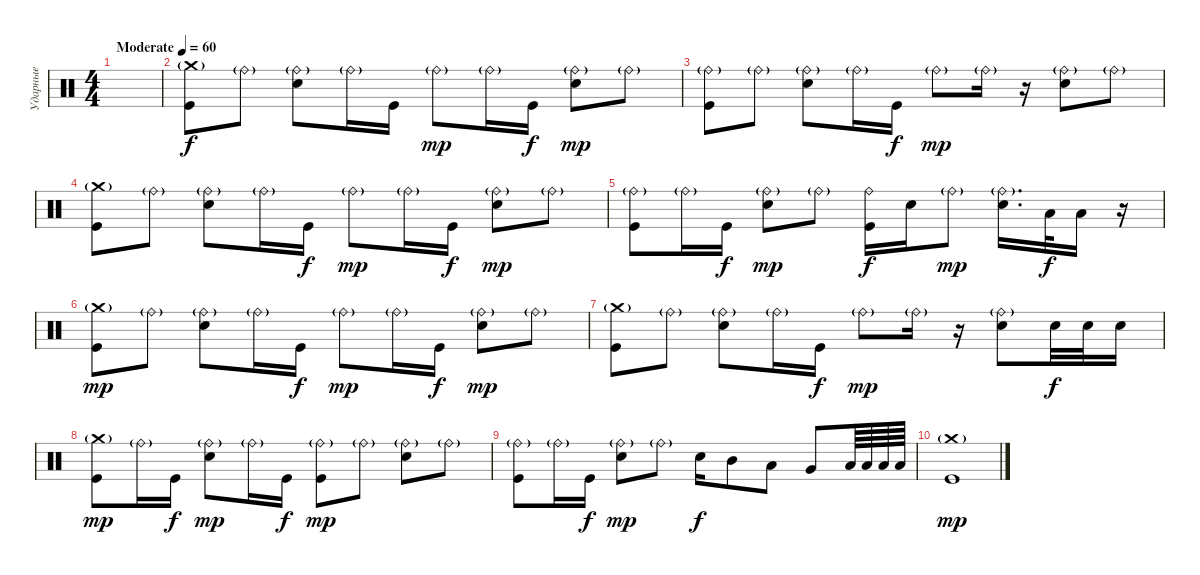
\track ("Ударные" "Ударные") {instrument percussion}
\staff {score}
\articulation defaults
\ts (4 4)
\tempo (60 "Moderate")
\clef neutral
\ks c
|
("Crash medium (hit)"{g} "Kick (hit)").8 "Ride (bell)"{g}.8 ("Snare (hit) 2" "Ride (bell)"{g}).8 "Ride (bell)"{g}.16 "Kick (hit)".16{dy f} "Ride (bell)"{g}.8{dy mp} "Ride (bell)"{g}.16 "Kick (hit)".16{dy f} ("Snare (hit) 2" "Ride (bell)"{g}).8{dy mp} "Ride (bell)"{g}.8 |
("Ride (bell)"{g} "Kick (hit)").8 "Ride (bell)"{g}.8 ("Snare (hit) 2" "Ride (bell)"{g}).8 "Ride (bell)"{g}.16 "Kick (hit)".16{dy f} "Ride (bell)"{g}.8{dy mp} "Ride (bell)"{g}.16 r.16 ("Snare (hit) 2" "Ride (bell)"{g}).8 "Ride (bell)"{g}.8 |
("Crash medium (hit)"{g} "Kick (hit)").8 "Ride (bell)"{g}.8 ("Snare (hit) 2" "Ride (bell)"{g}).8 "Ride (bell)"{g}.16 "Kick (hit)".16{dy f} "Ride (bell)"{g}.8{dy mp} "Ride (bell)"{g}.16 "Kick (hit)".16{dy f} ("Snare (hit) 2" "Ride (bell)"{g}).8{dy mp} "Ride (bell)"{g}.8 |
("Ride (bell)"{g} "Kick (hit)").8 "Ride (bell)"{g}.16 "Kick (hit)".16{dy f} ("Snare (hit) 2" "Ride (bell)"{g}).8{dy mp} "Ride (bell)"{g}.8 ("Ride (bell)" "Kick (hit)").16{dy f} "Snare (hit) 2".16 "Ride (bell)"{g}.8{dy mp} ("Snare (hit) 2" "Ride (bell)"{g}).16{d} "Low Tom (hit)".32{dy f} "Low Tom (hit)".16 r.16 |
("Crash medium (hit)"{g} "Kick (hit)").8{dy mp} "Ride (bell)"{g}.8 ("Snare (hit) 2" "Ride (bell)"{g}).8 "Ride (bell)"{g}.16 "Kick (hit)".16{dy f} "Ride (bell)"{g}.8{dy mp} "Ride (bell)"{g}.16 "Kick (hit)".16{dy f} ("Snare (hit) 2" "Ride (bell)"{g}).8{dy mp} "Ride (bell)"{g}.8 |
("Crash medium (hit)"{g} "Kick (hit)").8 "Ride (bell)"{g}.8 ("Snare (hit) 2" "Ride (bell)"{g}).8 "Ride (bell)"{g}.16 "Kick (hit)".16{dy f} "Ride (bell)"{g}.8{dy mp} "Ride (bell)"{g}.16 r.16 ("Snare (hit) 2" "Ride (bell)"{g}).8 "Snare (hit) 2".32{dy f} "Snare (hit) 2".32 "Snare (hit) 2".16 |
("Crash medium (hit)"{g} "Kick (hit)").8{dy mp} "Ride (bell)"{g}.16 "Kick (hit)".16{dy f} ("Snare (hit) 2" "Ride (bell)"{g}).8{dy mp} "Ride (bell)"{g}.16 "Kick (hit)".16{dy f} ("Ride (bell)"{g} "Kick (hit)").8{dy mp} "Ride (bell)"{g}.8 ("Snare (hit) 2" "Ride (bell)"{g}).8 "Ride (bell)"{g}.8 |
("Ride (bell)"{g} "Kick (hit)").8 "Ride (bell)"{g}.16 "Kick (hit)".16{dy f} ("Snare (hit) 2" "Ride (bell)"{g}).8{dy mp} "Ride (bell)"{g}.8 "Snare (hit) 2".16{dy f} "Mid Tom (hit)".8 "Low Tom (hit)".8 "Very Low Tom (hit)".8 "Low Floor Tom (hit)".64 "Low Floor Tom (hit)".64 "Low Floor Tom (hit)".64 "Low Floor Tom (hit)".64 |
("Crash medium (hit)"{g} "Kick (hit)").1{dy mp}
